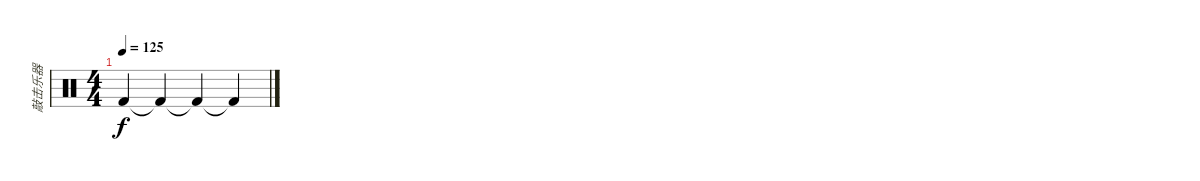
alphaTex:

\track ("敲击乐器" "敲击乐器") {instrument percussion}
\staff {score}
\articulation defaults
\ts (4 4)
\tempo 125
\clef neutral
\ks c "Kick (hit) 2"{t}.4{dy f} "Kick (hit) 2"{t}.4 "Kick (hit) 2"{t}.4 "Kick (hit) 2"{t}.4
